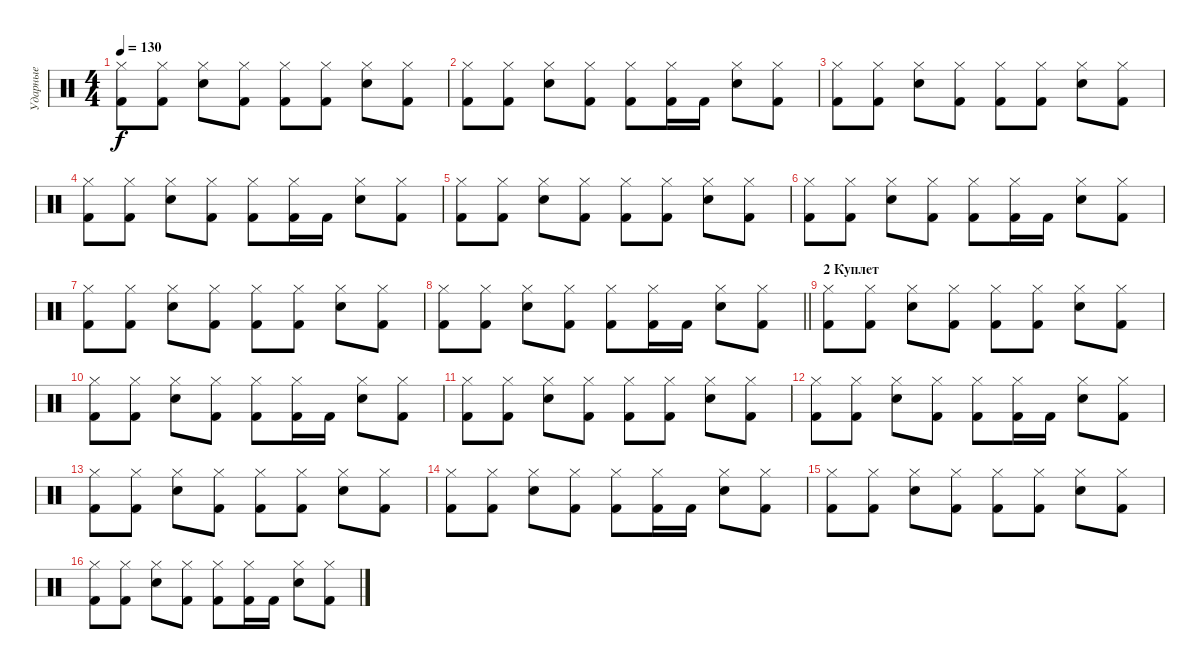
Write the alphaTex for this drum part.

\track ("Ударные" "Ударные") {instrument percussion}
\staff {score}
\articulation defaults
\ts (4 4)
\tempo 130
\clef neutral
\ks c
("Hi-Hat (closed)" "Kick (hit) 2").8{dy f} ("Hi-Hat (closed)" "Kick (hit) 2").8 ("Hi-Hat (closed)" "Snare (hit) 2").8 ("Hi-Hat (closed)" "Kick (hit) 2").8 ("Hi-Hat (closed)" "Kick (hit) 2").8 ("Hi-Hat (closed)" "Kick (hit) 2").8 ("Hi-Hat (closed)" "Snare (hit) 2").8 ("Hi-Hat (closed)" "Kick (hit) 2").8 |
("Hi-Hat (closed)" "Kick (hit) 2").8 ("Hi-Hat (closed)" "Kick (hit) 2").8 ("Hi-Hat (closed)" "Snare (hit) 2").8 ("Hi-Hat (closed)" "Kick (hit) 2").8 ("Hi-Hat (closed)" "Kick (hit) 2").8 ("Hi-Hat (closed)" "Kick (hit) 2").16 "Kick (hit) 2".16 ("Hi-Hat (closed)" "Snare (hit) 2").8 ("Hi-Hat (closed)" "Kick (hit) 2").8 |
("Hi-Hat (closed)" "Kick (hit) 2").8 ("Hi-Hat (closed)" "Kick (hit) 2").8 ("Hi-Hat (closed)" "Snare (hit) 2").8 ("Hi-Hat (closed)" "Kick (hit) 2").8 ("Hi-Hat (closed)" "Kick (hit) 2").8 ("Hi-Hat (closed)" "Kick (hit) 2").8 ("Hi-Hat (closed)" "Snare (hit) 2").8 ("Hi-Hat (closed)" "Kick (hit) 2").8 |
("Hi-Hat (closed)" "Kick (hit) 2").8 ("Hi-Hat (closed)" "Kick (hit) 2").8 ("Hi-Hat (closed)" "Snare (hit) 2").8 ("Hi-Hat (closed)" "Kick (hit) 2").8 ("Hi-Hat (closed)" "Kick (hit) 2").8 ("Hi-Hat (closed)" "Kick (hit) 2").16 "Kick (hit) 2".16 ("Hi-Hat (closed)" "Snare (hit) 2").8 ("Hi-Hat (closed)" "Kick (hit) 2").8 |
("Hi-Hat (closed)" "Kick (hit) 2").8 ("Hi-Hat (closed)" "Kick (hit) 2").8 ("Hi-Hat (closed)" "Snare (hit) 2").8 ("Hi-Hat (closed)" "Kick (hit) 2").8 ("Hi-Hat (closed)" "Kick (hit) 2").8 ("Hi-Hat (closed)" "Kick (hit) 2").8 ("Hi-Hat (closed)" "Snare (hit) 2").8 ("Hi-Hat (closed)" "Kick (hit) 2").8 |
("Hi-Hat (closed)" "Kick (hit) 2").8 ("Hi-Hat (closed)" "Kick (hit) 2").8 ("Hi-Hat (closed)" "Snare (hit) 2").8 ("Hi-Hat (closed)" "Kick (hit) 2").8 ("Hi-Hat (closed)" "Kick (hit) 2").8 ("Hi-Hat (closed)" "Kick (hit) 2").16 "Kick (hit) 2".16 ("Hi-Hat (closed)" "Snare (hit) 2").8 ("Hi-Hat (closed)" "Kick (hit) 2").8 |
("Hi-Hat (closed)" "Kick (hit) 2").8 ("Hi-Hat (closed)" "Kick (hit) 2").8 ("Hi-Hat (closed)" "Snare (hit) 2").8 ("Hi-Hat (closed)" "Kick (hit) 2").8 ("Hi-Hat (closed)" "Kick (hit) 2").8 ("Hi-Hat (closed)" "Kick (hit) 2").8 ("Hi-Hat (closed)" "Snare (hit) 2").8 ("Hi-Hat (closed)" "Kick (hit) 2").8 |
\barLineRight lightlight
("Hi-Hat (closed)" "Kick (hit) 2").8 ("Hi-Hat (closed)" "Kick (hit) 2").8 ("Hi-Hat (closed)" "Snare (hit) 2").8 ("Hi-Hat (closed)" "Kick (hit) 2").8 ("Hi-Hat (closed)" "Kick (hit) 2").8 ("Hi-Hat (closed)" "Kick (hit) 2").16 "Kick (hit) 2".16 ("Hi-Hat (closed)" "Snare (hit) 2").8 ("Hi-Hat (closed)" "Kick (hit) 2").8 |
\section ("" "2 Куплет")
("Hi-Hat (closed)" "Kick (hit) 2").8 ("Hi-Hat (closed)" "Kick (hit) 2").8 ("Hi-Hat (closed)" "Snare (hit) 2").8 ("Hi-Hat (closed)" "Kick (hit) 2").8 ("Hi-Hat (closed)" "Kick (hit) 2").8 ("Hi-Hat (closed)" "Kick (hit) 2").8 ("Hi-Hat (closed)" "Snare (hit) 2").8 ("Hi-Hat (closed)" "Kick (hit) 2").8 |
("Hi-Hat (closed)" "Kick (hit) 2").8 ("Hi-Hat (closed)" "Kick (hit) 2").8 ("Hi-Hat (closed)" "Snare (hit) 2").8 ("Hi-Hat (closed)" "Kick (hit) 2").8 ("Hi-Hat (closed)" "Kick (hit) 2").8 ("Hi-Hat (closed)" "Kick (hit) 2").16 "Kick (hit) 2".16 ("Hi-Hat (closed)" "Snare (hit) 2").8 ("Hi-Hat (closed)" "Kick (hit) 2").8 |
("Hi-Hat (closed)" "Kick (hit) 2").8 ("Hi-Hat (closed)" "Kick (hit) 2").8 ("Hi-Hat (closed)" "Snare (hit) 2").8 ("Hi-Hat (closed)" "Kick (hit) 2").8 ("Hi-Hat (closed)" "Kick (hit) 2").8 ("Hi-Hat (closed)" "Kick (hit) 2").8 ("Hi-Hat (closed)" "Snare (hit) 2").8 ("Hi-Hat (closed)" "Kick (hit) 2").8 |
("Hi-Hat (closed)" "Kick (hit) 2").8 ("Hi-Hat (closed)" "Kick (hit) 2").8 ("Hi-Hat (closed)" "Snare (hit) 2").8 ("Hi-Hat (closed)" "Kick (hit) 2").8 ("Hi-Hat (closed)" "Kick (hit) 2").8 ("Hi-Hat (closed)" "Kick (hit) 2").16 "Kick (hit) 2".16 ("Hi-Hat (closed)" "Snare (hit) 2").8 ("Hi-Hat (closed)" "Kick (hit) 2").8 |
("Hi-Hat (closed)" "Kick (hit) 2").8 ("Hi-Hat (closed)" "Kick (hit) 2").8 ("Hi-Hat (closed)" "Snare (hit) 2").8 ("Hi-Hat (closed)" "Kick (hit) 2").8 ("Hi-Hat (closed)" "Kick (hit) 2").8 ("Hi-Hat (closed)" "Kick (hit) 2").8 ("Hi-Hat (closed)" "Snare (hit) 2").8 ("Hi-Hat (closed)" "Kick (hit) 2").8 |
("Hi-Hat (closed)" "Kick (hit) 2").8 ("Hi-Hat (closed)" "Kick (hit) 2").8 ("Hi-Hat (closed)" "Snare (hit) 2").8 ("Hi-Hat (closed)" "Kick (hit) 2").8 ("Hi-Hat (closed)" "Kick (hit) 2").8 ("Hi-Hat (closed)" "Kick (hit) 2").16 "Kick (hit) 2".16 ("Hi-Hat (closed)" "Snare (hit) 2").8 ("Hi-Hat (closed)" "Kick (hit) 2").8 |
("Hi-Hat (closed)" "Kick (hit) 2").8 ("Hi-Hat (closed)" "Kick (hit) 2").8 ("Hi-Hat (closed)" "Snare (hit) 2").8 ("Hi-Hat (closed)" "Kick (hit) 2").8 ("Hi-Hat (closed)" "Kick (hit) 2").8 ("Hi-Hat (closed)" "Kick (hit) 2").8 ("Hi-Hat (closed)" "Snare (hit) 2").8 ("Hi-Hat (closed)" "Kick (hit) 2").8 |
("Hi-Hat (closed)" "Kick (hit) 2").8 ("Hi-Hat (closed)" "Kick (hit) 2").8 ("Hi-Hat (closed)" "Snare (hit) 2").8 ("Hi-Hat (closed)" "Kick (hit) 2").8 ("Hi-Hat (closed)" "Kick (hit) 2").8 ("Hi-Hat (closed)" "Kick (hit) 2").16 "Kick (hit) 2".16 ("Hi-Hat (closed)" "Snare (hit) 2").8 ("Hi-Hat (closed)" "Kick (hit) 2").8
